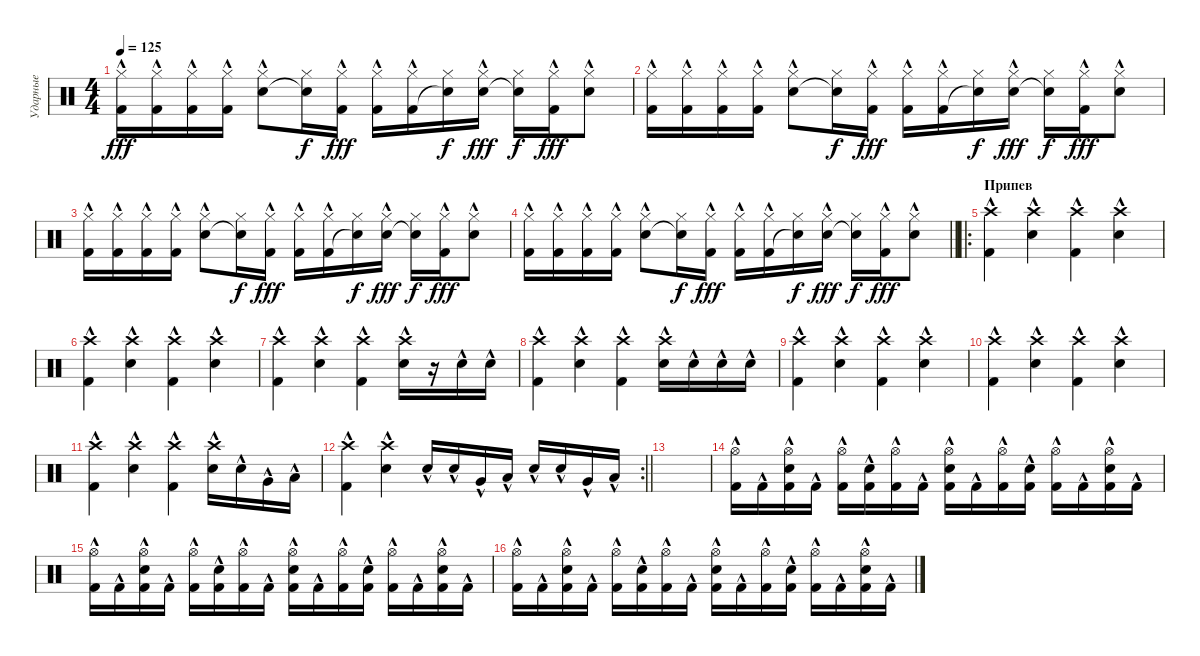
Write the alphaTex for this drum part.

\track ("Ударные" "Ударные") {instrument percussion}
\staff {score}
\articulation defaults
\ts (4 4)
\tempo 125
\clef neutral
\ks c
("Hi-Hat (closed)" "Kick (hit) 2"{hac}).16{dy fff} ("Hi-Hat (closed)" "Kick (hit) 2"{hac}).16 ("Hi-Hat (closed)" "Kick (hit) 2"{hac}).16 ("Hi-Hat (closed)" "Kick (hit) 2"{hac}).16 ("Hi-Hat (closed)" "Electric Snare (hit)"{hac}).8 ("Hi-Hat (closed)" "Snare (hit)"{t}).16{dy f} ("Hi-Hat (closed)" "Kick (hit) 2"{hac}).16{dy fff} ("Hi-Hat (closed)" "Kick (hit) 2"{hac}).16 ("Hi-Hat (closed)" "Kick (hit) 2"{hac}).16 ("Hi-Hat (closed)" "Snare (hit)"{t}).16{dy f} ("Hi-Hat (closed)" "Electric Snare (hit)"{hac}).16{dy fff} ("Hi-Hat (closed)" "Snare (hit)"{t}).16{dy f} ("Hi-Hat (closed)" "Kick (hit) 2"{hac}).16{dy fff} ("Hi-Hat (closed)" "Electric Snare (hit)"{hac}).8 |
("Hi-Hat (closed)" "Kick (hit) 2"{hac}).16 ("Hi-Hat (closed)" "Kick (hit) 2"{hac}).16 ("Hi-Hat (closed)" "Kick (hit) 2"{hac}).16 ("Hi-Hat (closed)" "Kick (hit) 2"{hac}).16 ("Hi-Hat (closed)" "Electric Snare (hit)"{hac}).8 ("Hi-Hat (closed)" "Snare (hit)"{t}).16{dy f} ("Hi-Hat (closed)" "Kick (hit) 2"{hac}).16{dy fff} ("Hi-Hat (closed)" "Kick (hit) 2"{hac}).16 ("Hi-Hat (closed)" "Kick (hit) 2"{hac}).16 ("Hi-Hat (closed)" "Snare (hit)"{t}).16{dy f} ("Hi-Hat (closed)" "Electric Snare (hit)"{hac}).16{dy fff} ("Hi-Hat (closed)" "Snare (hit)"{t}).16{dy f} ("Hi-Hat (closed)" "Kick (hit) 2"{hac}).16{dy fff} ("Hi-Hat (closed)" "Electric Snare (hit)"{hac}).8 |
("Hi-Hat (closed)" "Kick (hit) 2"{hac}).16 ("Hi-Hat (closed)" "Kick (hit) 2"{hac}).16 ("Hi-Hat (closed)" "Kick (hit) 2"{hac}).16 ("Hi-Hat (closed)" "Kick (hit) 2"{hac}).16 ("Hi-Hat (closed)" "Electric Snare (hit)"{hac}).8 ("Hi-Hat (closed)" "Snare (hit)"{t}).16{dy f} ("Hi-Hat (closed)" "Kick (hit) 2"{hac}).16{dy fff} ("Hi-Hat (closed)" "Kick (hit) 2"{hac}).16 ("Hi-Hat (closed)" "Kick (hit) 2"{hac}).16 ("Hi-Hat (closed)" "Snare (hit)"{t}).16{dy f} ("Hi-Hat (closed)" "Electric Snare (hit)"{hac}).16{dy fff} ("Hi-Hat (closed)" "Snare (hit)"{t}).16{dy f} ("Hi-Hat (closed)" "Kick (hit) 2"{hac}).16{dy fff} ("Hi-Hat (closed)" "Electric Snare (hit)"{hac}).8 |
\barLineRight lightlight
("Hi-Hat (closed)" "Kick (hit) 2"{hac}).16 ("Hi-Hat (closed)" "Kick (hit) 2"{hac}).16 ("Hi-Hat (closed)" "Kick (hit) 2"{hac}).16 ("Hi-Hat (closed)" "Kick (hit) 2"{hac}).16 ("Hi-Hat (closed)" "Electric Snare (hit)"{hac}).8 ("Hi-Hat (closed)" "Snare (hit)"{t}).16{dy f} ("Hi-Hat (closed)" "Kick (hit) 2"{hac}).16{dy fff} ("Hi-Hat (closed)" "Kick (hit) 2"{hac}).16 ("Hi-Hat (closed)" "Kick (hit) 2"{hac}).16 ("Hi-Hat (closed)" "Snare (hit)"{t}).16{dy f} ("Hi-Hat (closed)" "Electric Snare (hit)"{hac}).16{dy fff} ("Hi-Hat (closed)" "Snare (hit)"{t}).16{dy f} ("Hi-Hat (closed)" "Kick (hit) 2"{hac}).16{dy fff} ("Hi-Hat (closed)" "Electric Snare (hit)"{hac}).8 |
\ro
\section ("" "Припев")
("Crash high (hit)"{hac} "Kick (hit) 2"{hac}).4 ("Crash high (hit)"{hac} "Electric Snare (hit)"{hac}).4 ("Crash high (hit)"{hac} "Kick (hit) 2"{hac}).4 ("Crash high (hit)"{hac} "Electric Snare (hit)"{hac}).4 |
("Crash high (hit)"{hac} "Kick (hit) 2"{hac}).4 ("Crash high (hit)"{hac} "Electric Snare (hit)"{hac}).4 ("Crash high (hit)"{hac} "Kick (hit) 2"{hac}).4 ("Crash high (hit)"{hac} "Electric Snare (hit)"{hac}).4 |
("Crash high (hit)"{hac} "Kick (hit) 2"{hac}).4 ("Crash high (hit)"{hac} "Electric Snare (hit)"{hac}).4 ("Crash high (hit)"{hac} "Kick (hit) 2"{hac}).4 ("Crash high (hit)"{hac} "Electric Snare (hit)"{hac}).16 r.16 "Electric Snare (hit)"{hac}.16 "Electric Snare (hit)"{hac}.16 |
("Crash high (hit)"{hac} "Kick (hit) 2"{hac}).4 ("Crash high (hit)"{hac} "Electric Snare (hit)"{hac}).4 ("Crash high (hit)"{hac} "Kick (hit) 2"{hac}).4 ("Crash high (hit)"{hac} "Electric Snare (hit)"{hac}).16 "Electric Snare (hit)"{hac}.16 "Electric Snare (hit)"{hac}.16 "Electric Snare (hit)"{hac}.16 |
("Crash high (hit)"{hac} "Kick (hit) 2"{hac}).4 ("Crash high (hit)"{hac} "Electric Snare (hit)"{hac}).4 ("Crash high (hit)"{hac} "Kick (hit) 2"{hac}).4 ("Crash high (hit)"{hac} "Electric Snare (hit)"{hac}).4 |
("Crash high (hit)"{hac} "Kick (hit) 2"{hac}).4 ("Crash high (hit)"{hac} "Electric Snare (hit)"{hac}).4 ("Crash high (hit)"{hac} "Kick (hit) 2"{hac}).4 ("Crash high (hit)"{hac} "Electric Snare (hit)"{hac}).4 |
("Crash high (hit)"{hac} "Kick (hit) 2"{hac}).4 ("Crash high (hit)"{hac} "Electric Snare (hit)"{hac}).4 ("Crash high (hit)"{hac} "Kick (hit) 2"{hac}).4 ("Crash high (hit)"{hac} "Electric Snare (hit)"{hac}).16 "Electric Snare (hit)"{hac}.16 "Very Low Tom (hit)"{hac}.16 "Low Tom (hit)"{hac}.16 |
\rc 2
\barLineRight lightlight
("Crash high (hit)"{hac} "Kick (hit) 2"{hac}).4 ("Crash high (hit)"{hac} "Electric Snare (hit)"{hac}).4 "Electric Snare (hit)"{hac}.16 "Electric Snare (hit)"{hac}.16 "Very Low Tom (hit)"{hac}.16 "Low Tom (hit)"{hac}.16 "Electric Snare (hit)"{hac}.16 "Electric Snare (hit)"{hac}.16 "Very Low Tom (hit)"{hac}.16 "Low Tom (hit)"{hac}.16 |
|
("Hi-Hat (open)"{hac} "Kick (hit) 2"{hac}).16 "Kick (hit) 2"{hac}.16 ("Hi-Hat (open)"{hac} "Electric Snare (hit)"{hac} "Kick (hit) 2"{hac}).16 "Kick (hit) 2"{hac}.16 ("Hi-Hat (open)"{hac} "Kick (hit) 2"{hac}).16 ("Electric Snare (hit)"{hac} "Kick (hit) 2"{hac}).16 ("Hi-Hat (open)"{hac} "Kick (hit) 2"{hac}).16 "Kick (hit) 2"{hac}.16 ("Hi-Hat (open)"{hac} "Electric Snare (hit)"{hac} "Kick (hit) 2"{hac}).16 "Kick (hit) 2"{hac}.16 ("Hi-Hat (open)"{hac} "Kick (hit) 2"{hac}).16 ("Electric Snare (hit)"{hac} "Kick (hit) 2"{hac}).16 ("Hi-Hat (open)"{hac} "Kick (hit) 2"{hac}).16 "Kick (hit) 2"{hac}.16 ("Hi-Hat (open)"{hac} "Electric Snare (hit)"{hac} "Kick (hit) 2"{hac}).16 "Kick (hit) 2"{hac}.16 |
("Hi-Hat (open)"{hac} "Kick (hit) 2"{hac}).16 "Kick (hit) 2"{hac}.16 ("Hi-Hat (open)"{hac} "Electric Snare (hit)"{hac} "Kick (hit) 2"{hac}).16 "Kick (hit) 2"{hac}.16 ("Hi-Hat (open)"{hac} "Kick (hit) 2"{hac}).16 ("Electric Snare (hit)"{hac} "Kick (hit) 2"{hac}).16 ("Hi-Hat (open)"{hac} "Kick (hit) 2"{hac}).16 "Kick (hit) 2"{hac}.16 ("Hi-Hat (open)"{hac} "Electric Snare (hit)"{hac} "Kick (hit) 2"{hac}).16 "Kick (hit) 2"{hac}.16 ("Hi-Hat (open)"{hac} "Kick (hit) 2"{hac}).16 ("Electric Snare (hit)"{hac} "Kick (hit) 2"{hac}).16 ("Hi-Hat (open)"{hac} "Kick (hit) 2"{hac}).16 "Kick (hit) 2"{hac}.16 ("Hi-Hat (open)"{hac} "Electric Snare (hit)"{hac} "Kick (hit) 2"{hac}).16 "Kick (hit) 2"{hac}.16 |
("Hi-Hat (open)"{hac} "Kick (hit) 2"{hac}).16 "Kick (hit) 2"{hac}.16 ("Hi-Hat (open)"{hac} "Electric Snare (hit)"{hac} "Kick (hit) 2"{hac}).16 "Kick (hit) 2"{hac}.16 ("Hi-Hat (open)"{hac} "Kick (hit) 2"{hac}).16 ("Electric Snare (hit)"{hac} "Kick (hit) 2"{hac}).16 ("Hi-Hat (open)"{hac} "Kick (hit) 2"{hac}).16 "Kick (hit) 2"{hac}.16 ("Hi-Hat (open)"{hac} "Electric Snare (hit)"{hac} "Kick (hit) 2"{hac}).16 "Kick (hit) 2"{hac}.16 ("Hi-Hat (open)"{hac} "Kick (hit) 2"{hac}).16 ("Electric Snare (hit)"{hac} "Kick (hit) 2"{hac}).16 ("Hi-Hat (open)"{hac} "Kick (hit) 2"{hac}).16 "Kick (hit) 2"{hac}.16 ("Hi-Hat (open)"{hac} "Electric Snare (hit)"{hac} "Kick (hit) 2"{hac}).16 "Kick (hit) 2"{hac}.16
